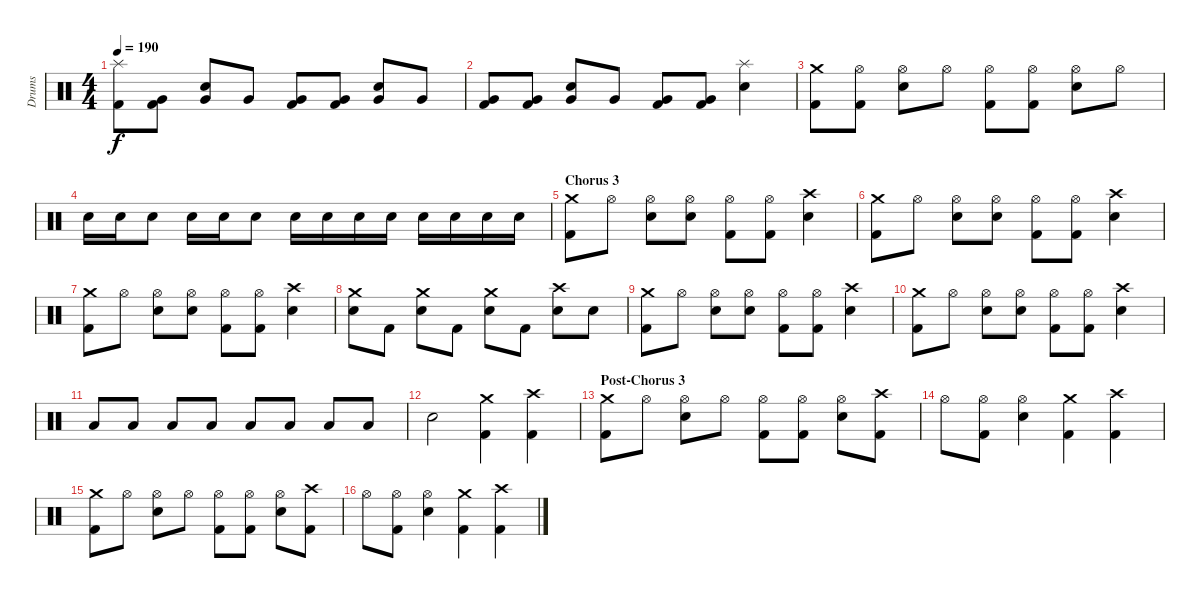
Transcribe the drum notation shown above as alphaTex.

\track ("Drums" "Drums") {instrument percussion}
\staff {score}
\articulation defaults
\ts (4 4)
\tempo 190
\clef neutral
\ks c
("Splash (hit)" "Kick (hit) 2").8{dy f} ("Very Low Tom (hit)" "Kick (hit) 2").8 ("Electric Snare (hit)" "Very Low Tom (hit)").8 "Very Low Tom (hit)".8 ("Very Low Tom (hit)" "Kick (hit) 2").8 ("Very Low Tom (hit)" "Kick (hit) 2").8 ("Electric Snare (hit)" "Very Low Tom (hit)").8 "Very Low Tom (hit)".8 |
("Very Low Tom (hit)" "Kick (hit) 2").8 ("Very Low Tom (hit)" "Kick (hit) 2").8 ("Electric Snare (hit)" "Very Low Tom (hit)").8 "Very Low Tom (hit)".8 ("Very Low Tom (hit)" "Kick (hit) 2").8 ("Very Low Tom (hit)" "Kick (hit) 2").8 ("Splash (hit)" "Electric Snare (hit)").4 |
("Crash medium (hit)" "Kick (hit) 2").8 ("Hi-Hat (open)" "Kick (hit) 2").8 ("Hi-Hat (open)" "Electric Snare (hit)").8 "Hi-Hat (open)".8 ("Hi-Hat (open)" "Kick (hit) 2").8 ("Hi-Hat (open)" "Kick (hit) 2").8 ("Hi-Hat (open)" "Electric Snare (hit)").8 "Hi-Hat (open)".8 |
"Electric Snare (hit)".16 "Electric Snare (hit)".16 "Electric Snare (hit)".8 "Electric Snare (hit)".16 "Electric Snare (hit)".16 "Electric Snare (hit)".8 "Electric Snare (hit)".16 "Electric Snare (hit)".16 "Electric Snare (hit)".16 "Electric Snare (hit)".16 "Electric Snare (hit)".16 "Electric Snare (hit)".16 "Electric Snare (hit)".16 "Electric Snare (hit)".16 |
\section ("" "Chorus 3")
("Crash medium (hit)" "Kick (hit) 2").8 "Hi-Hat (open)".8 ("Hi-Hat (open)" "Electric Snare (hit)").8 ("Hi-Hat (open)" "Electric Snare (hit)").8 ("Hi-Hat (open)" "Kick (hit) 2").8 ("Hi-Hat (open)" "Kick (hit) 2").8 ("Crash high (hit)" "Electric Snare (hit)").4 |
("Crash medium (hit)" "Kick (hit) 2").8 "Hi-Hat (open)".8 ("Hi-Hat (open)" "Electric Snare (hit)").8 ("Hi-Hat (open)" "Electric Snare (hit)").8 ("Hi-Hat (open)" "Kick (hit) 2").8 ("Hi-Hat (open)" "Kick (hit) 2").8 ("Crash high (hit)" "Electric Snare (hit)").4 |
("Crash medium (hit)" "Kick (hit) 2").8 "Hi-Hat (open)".8 ("Hi-Hat (open)" "Electric Snare (hit)").8 ("Hi-Hat (open)" "Electric Snare (hit)").8 ("Hi-Hat (open)" "Kick (hit) 2").8 ("Hi-Hat (open)" "Kick (hit) 2").8 ("Crash high (hit)" "Electric Snare (hit)").4 |
("Crash medium (hit)" "Electric Snare (hit)").8 "Kick (hit) 2".8 ("Crash medium (hit)" "Electric Snare (hit)").8 "Kick (hit) 2".8 ("Crash medium (hit)" "Electric Snare (hit)").8 "Kick (hit) 2".8 ("Crash high (hit)" "Electric Snare (hit)").8 "Electric Snare (hit)".8 |
("Crash medium (hit)" "Kick (hit) 2").8 "Hi-Hat (open)".8 ("Hi-Hat (open)" "Electric Snare (hit)").8 ("Hi-Hat (open)" "Electric Snare (hit)").8 ("Hi-Hat (open)" "Kick (hit) 2").8 ("Hi-Hat (open)" "Kick (hit) 2").8 ("Crash high (hit)" "Electric Snare (hit)").4 |
("Crash medium (hit)" "Kick (hit) 2").8 "Hi-Hat (open)".8 ("Hi-Hat (open)" "Electric Snare (hit)").8 ("Hi-Hat (open)" "Electric Snare (hit)").8 ("Hi-Hat (open)" "Kick (hit) 2").8 ("Hi-Hat (open)" "Kick (hit) 2").8 ("Crash high (hit)" "Electric Snare (hit)").4 |
"Low Tom (hit)".8 "Low Tom (hit)".8 "Low Tom (hit)".8 "Low Tom (hit)".8 "Low Tom (hit)".8 "Low Tom (hit)".8 "Low Tom (hit)".8 "Low Tom (hit)".8 |
"Electric Snare (hit)".2 ("Crash medium (hit)" "Kick (hit) 2").4 ("Crash high (hit)" "Kick (hit) 2").4 |
\section ("" "Post-Chorus 3")
("Crash medium (hit)" "Kick (hit) 2").8 "Hi-Hat (open)".8 ("Hi-Hat (open)" "Electric Snare (hit)").8 "Hi-Hat (open)".8 ("Hi-Hat (open)" "Kick (hit) 2").8 ("Hi-Hat (open)" "Kick (hit) 2").8 ("Hi-Hat (open)" "Electric Snare (hit)").8 ("Crash high (hit)" "Kick (hit) 2").8 |
"Hi-Hat (open)".8 ("Hi-Hat (open)" "Kick (hit) 2").8 ("Hi-Hat (open)" "Electric Snare (hit)").4 ("Crash medium (hit)" "Kick (hit) 2").4 ("Crash high (hit)" "Kick (hit) 2").4 |
("Crash medium (hit)" "Kick (hit) 2").8 "Hi-Hat (open)".8 ("Hi-Hat (open)" "Electric Snare (hit)").8 "Hi-Hat (open)".8 ("Hi-Hat (open)" "Kick (hit) 2").8 ("Hi-Hat (open)" "Kick (hit) 2").8 ("Hi-Hat (open)" "Electric Snare (hit)").8 ("Crash high (hit)" "Kick (hit) 2").8 |
"Hi-Hat (open)".8 ("Hi-Hat (open)" "Kick (hit) 2").8 ("Hi-Hat (open)" "Electric Snare (hit)").4 ("Crash medium (hit)" "Kick (hit) 2").4 ("Crash high (hit)" "Kick (hit) 2").4
